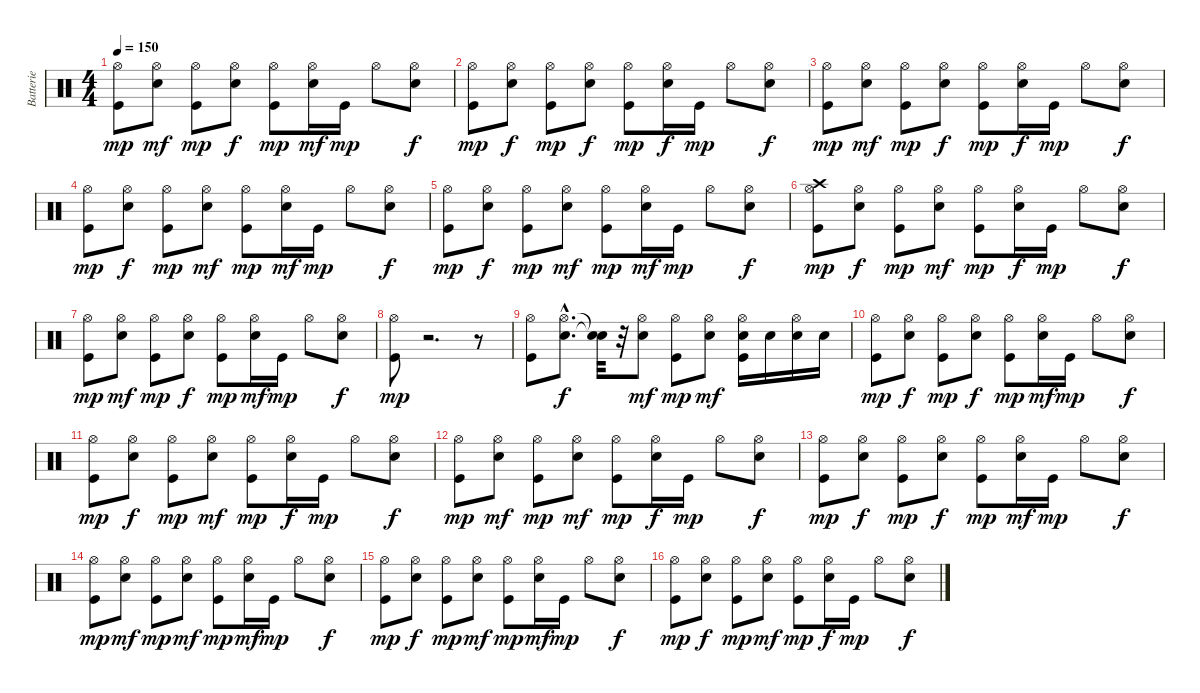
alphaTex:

\track ("Batterie" "Batterie") {instrument percussion}
\staff {score}
\articulation defaults
\ts (4 4)
\tempo 150
\clef neutral
\ks c
("Hi-Hat (open)" "Kick (hit)").8{dy mp} ("Hi-Hat (open)" "Snare (hit) 2").8{dy mf} ("Hi-Hat (open)" "Kick (hit)").8{dy mp} ("Hi-Hat (open)" "Snare (hit) 2").8{dy f} ("Hi-Hat (open)" "Kick (hit)").8{dy mp} ("Hi-Hat (open)" "Snare (hit) 2").16{dy mf} "Kick (hit)".16{dy mp} "Hi-Hat (open)".8 ("Hi-Hat (open)" "Snare (hit) 2").8{dy f} |
("Hi-Hat (open)" "Kick (hit)").8{dy mp} ("Hi-Hat (open)" "Snare (hit) 2").8{dy f} ("Hi-Hat (open)" "Kick (hit)").8{dy mp} ("Hi-Hat (open)" "Snare (hit) 2").8{dy f} ("Hi-Hat (open)" "Kick (hit)").8{dy mp} ("Hi-Hat (open)" "Snare (hit) 2").16{dy f} "Kick (hit)".16{dy mp} "Hi-Hat (open)".8 ("Hi-Hat (open)" "Snare (hit) 2").8{dy f} |
("Hi-Hat (open)" "Kick (hit)").8{dy mp} ("Hi-Hat (open)" "Snare (hit) 2").8{dy mf} ("Hi-Hat (open)" "Kick (hit)").8{dy mp} ("Hi-Hat (open)" "Snare (hit) 2").8{dy f} ("Hi-Hat (open)" "Kick (hit)").8{dy mp} ("Hi-Hat (open)" "Snare (hit) 2").16{dy f} "Kick (hit)".16{dy mp} "Hi-Hat (open)".8 ("Hi-Hat (open)" "Snare (hit) 2").8{dy f} |
("Hi-Hat (open)" "Kick (hit)").8{dy mp} ("Hi-Hat (open)" "Snare (hit) 2").8{dy f} ("Hi-Hat (open)" "Kick (hit)").8{dy mp} ("Hi-Hat (open)" "Snare (hit) 2").8{dy mf} ("Hi-Hat (open)" "Kick (hit)").8{dy mp} ("Hi-Hat (open)" "Snare (hit) 2").16{dy mf} "Kick (hit)".16{dy mp} "Hi-Hat (open)".8 ("Hi-Hat (open)" "Snare (hit) 2").8{dy f} |
("Hi-Hat (open)" "Kick (hit)").8{dy mp} ("Hi-Hat (open)" "Snare (hit) 2").8{dy f} ("Hi-Hat (open)" "Kick (hit)").8{dy mp} ("Hi-Hat (open)" "Snare (hit) 2").8{dy mf} ("Hi-Hat (open)" "Kick (hit)").8{dy mp} ("Hi-Hat (open)" "Snare (hit) 2").16{dy mf} "Kick (hit)".16{dy mp} "Hi-Hat (open)".8 ("Hi-Hat (open)" "Snare (hit) 2").8{dy f} |
("Hi-Hat (open)" "Crash high (hit)" "Kick (hit)").8{dy mp} ("Hi-Hat (open)" "Snare (hit) 2").8{dy f} ("Hi-Hat (open)" "Kick (hit)").8{dy mp} ("Hi-Hat (open)" "Snare (hit) 2").8{dy mf} ("Hi-Hat (open)" "Kick (hit)").8{dy mp} ("Hi-Hat (open)" "Snare (hit) 2").16{dy f} "Kick (hit)".16{dy mp} "Hi-Hat (open)".8 ("Hi-Hat (open)" "Snare (hit) 2").8{dy f} |
("Hi-Hat (open)" "Kick (hit)").8{dy mp} ("Hi-Hat (open)" "Snare (hit) 2").8{dy mf} ("Hi-Hat (open)" "Kick (hit)").8{dy mp} ("Hi-Hat (open)" "Snare (hit) 2").8{dy f} ("Hi-Hat (open)" "Kick (hit)").8{dy mp} ("Hi-Hat (open)" "Snare (hit) 2").16{dy mf} "Kick (hit)".16{dy mp} "Hi-Hat (open)".8 ("Hi-Hat (open)" "Snare (hit) 2").8{dy f} |
("Hi-Hat (open)" "Kick (hit)").8{dy mp} r.2{d} r.8 |
("Hi-Hat (open)" "Kick (hit)").8 ("Hi-Hat (open)"{hac} "Snare (hit) 2"{hac}).8{d dy f} ("Snare (hit)"{t} "Snare (hit)"{t}).32 r.32 ("Hi-Hat (open)" "Snare (hit) 2").8{dy mf} ("Hi-Hat (open)" "Kick (hit)").8{dy mp} ("Hi-Hat (open)" "Snare (hit) 2").8{dy mf} ("Hi-Hat (open)" "Kick (hit)" "Snare (hit) 2").16 "Snare (hit) 2".16 ("Hi-Hat (open)" "Snare (hit) 2").16 "Snare (hit) 2".16 |
("Hi-Hat (open)" "Kick (hit)").8{dy mp} ("Hi-Hat (open)" "Snare (hit) 2").8{dy f} ("Hi-Hat (open)" "Kick (hit)").8{dy mp} ("Hi-Hat (open)" "Snare (hit) 2").8{dy f} ("Hi-Hat (open)" "Kick (hit)").8{dy mp} ("Hi-Hat (open)" "Snare (hit) 2").16{dy mf} "Kick (hit)".16{dy mp} "Hi-Hat (open)".8 ("Hi-Hat (open)" "Snare (hit) 2").8{dy f} |
("Hi-Hat (open)" "Kick (hit)").8{dy mp} ("Hi-Hat (open)" "Snare (hit) 2").8{dy f} ("Hi-Hat (open)" "Kick (hit)").8{dy mp} ("Hi-Hat (open)" "Snare (hit) 2").8{dy mf} ("Hi-Hat (open)" "Kick (hit)").8{dy mp} ("Hi-Hat (open)" "Snare (hit) 2").16{dy f} "Kick (hit)".16{dy mp} "Hi-Hat (open)".8 ("Hi-Hat (open)" "Snare (hit) 2").8{dy f} |
("Hi-Hat (open)" "Kick (hit)").8{dy mp} ("Hi-Hat (open)" "Snare (hit) 2").8{dy mf} ("Hi-Hat (open)" "Kick (hit)").8{dy mp} ("Hi-Hat (open)" "Snare (hit) 2").8{dy mf} ("Hi-Hat (open)" "Kick (hit)").8{dy mp} ("Hi-Hat (open)" "Snare (hit) 2").16{dy f} "Kick (hit)".16{dy mp} "Hi-Hat (open)".8 ("Hi-Hat (open)" "Snare (hit) 2").8{dy f} |
("Hi-Hat (open)" "Kick (hit)").8{dy mp} ("Hi-Hat (open)" "Snare (hit) 2").8{dy f} ("Hi-Hat (open)" "Kick (hit)").8{dy mp} ("Hi-Hat (open)" "Snare (hit) 2").8{dy f} ("Hi-Hat (open)" "Kick (hit)").8{dy mp} ("Hi-Hat (open)" "Snare (hit) 2").16{dy mf} "Kick (hit)".16{dy mp} "Hi-Hat (open)".8 ("Hi-Hat (open)" "Snare (hit) 2").8{dy f} |
("Hi-Hat (open)" "Kick (hit)").8{dy mp} ("Hi-Hat (open)" "Snare (hit) 2").8{dy mf} ("Hi-Hat (open)" "Kick (hit)").8{dy mp} ("Hi-Hat (open)" "Snare (hit) 2").8{dy mf} ("Hi-Hat (open)" "Kick (hit)").8{dy mp} ("Hi-Hat (open)" "Snare (hit) 2").16{dy mf} "Kick (hit)".16{dy mp} "Hi-Hat (open)".8 ("Hi-Hat (open)" "Snare (hit) 2").8{dy f} |
("Hi-Hat (open)" "Kick (hit)").8{dy mp} ("Hi-Hat (open)" "Snare (hit) 2").8{dy f} ("Hi-Hat (open)" "Kick (hit)").8{dy mp} ("Hi-Hat (open)" "Snare (hit) 2").8{dy mf} ("Hi-Hat (open)" "Kick (hit)").8{dy mp} ("Hi-Hat (open)" "Snare (hit) 2").16{dy mf} "Kick (hit)".16{dy mp} "Hi-Hat (open)".8 ("Hi-Hat (open)" "Snare (hit) 2").8{dy f} |
("Hi-Hat (open)" "Kick (hit)").8{dy mp} ("Hi-Hat (open)" "Snare (hit) 2").8{dy f} ("Hi-Hat (open)" "Kick (hit)").8{dy mp} ("Hi-Hat (open)" "Snare (hit) 2").8{dy mf} ("Hi-Hat (open)" "Kick (hit)").8{dy mp} ("Hi-Hat (open)" "Snare (hit) 2").16{dy f} "Kick (hit)".16{dy mp} "Hi-Hat (open)".8 ("Hi-Hat (open)" "Snare (hit) 2").8{dy f}
